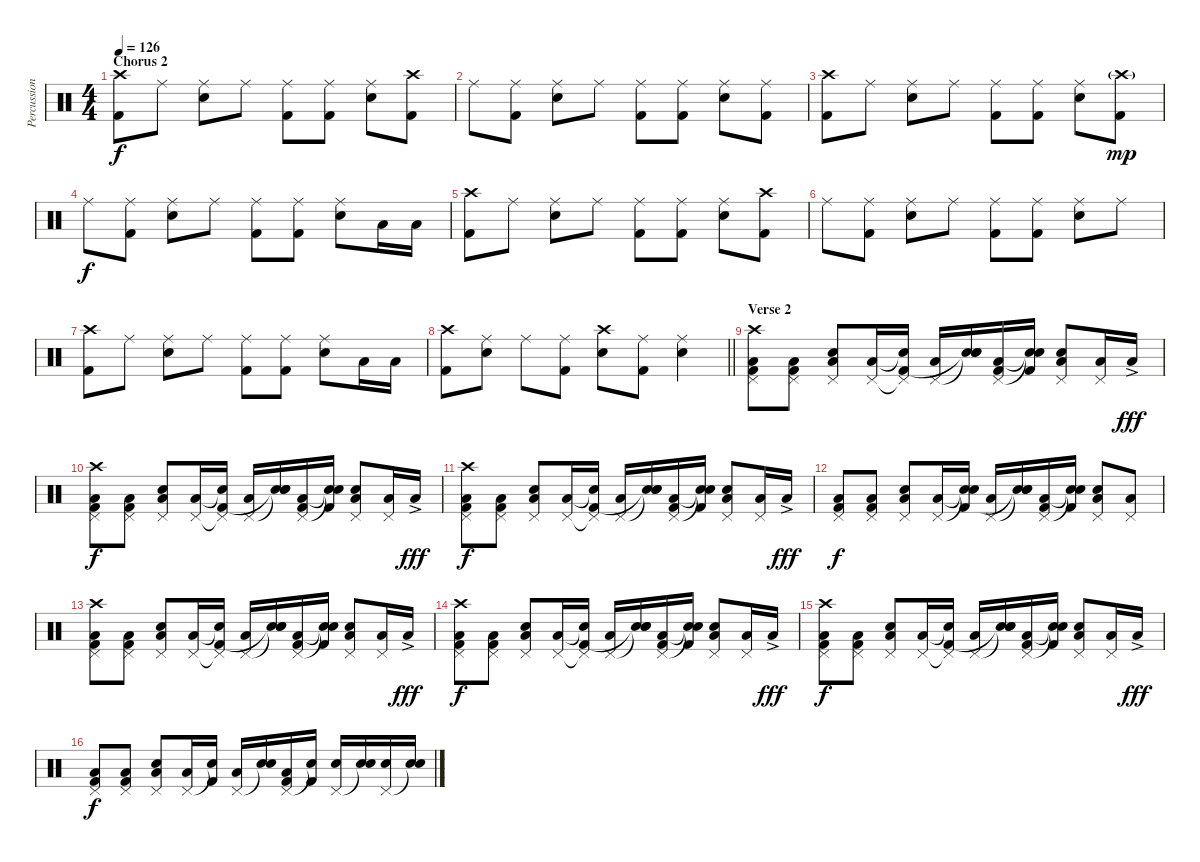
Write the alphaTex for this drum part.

\track ("Percussion" "Percussion") {instrument percussion}
\staff {score}
\articulation defaults
\ts (4 4)
\section ("" "Chorus 2")
\tempo 126
\clef neutral
\ks c
("Crash high (hit)" "Kick (hit) 2").8{dy f} "Ride (middle)".8 ("Ride (middle)" "Snare (hit) 2").8 "Ride (middle)".8 ("Ride (middle)" "Kick (hit) 2").8 ("Ride (middle)" "Kick (hit) 2").8 ("Ride (middle)" "Snare (hit) 2").8 ("Crash high (hit)" "Kick (hit) 2").8 |
"Ride (middle)".8 ("Ride (middle)" "Kick (hit) 2").8 ("Ride (middle)" "Snare (hit) 2").8 "Ride (middle)".8 ("Ride (middle)" "Kick (hit) 2").8 ("Ride (middle)" "Kick (hit) 2").8 ("Ride (middle)" "Snare (hit) 2").8 ("Ride (middle)" "Kick (hit) 2").8 |
("Crash high (hit)" "Kick (hit) 2").8 "Ride (middle)".8 ("Ride (middle)" "Snare (hit) 2").8 "Ride (middle)".8 ("Ride (middle)" "Kick (hit) 2").8 ("Ride (middle)" "Kick (hit) 2").8 ("Ride (middle)" "Snare (hit) 2").8 ("Crash high (hit)"{g} "Kick (hit) 2").8{dy mp} |
"Ride (middle)".8{dy f} ("Ride (middle)" "Kick (hit) 2").8 ("Ride (middle)" "Snare (hit) 2").8 "Ride (middle)".8 ("Ride (middle)" "Kick (hit) 2").8 ("Ride (middle)" "Kick (hit) 2").8 ("Ride (middle)" "Snare (hit) 2").8 "Low Floor Tom (hit)".16 "Low Floor Tom (hit)".16 |
("Crash high (hit)" "Kick (hit) 2").8 "Ride (middle)".8 ("Ride (middle)" "Snare (hit) 2").8 "Ride (middle)".8 ("Ride (middle)" "Kick (hit) 2").8 ("Ride (middle)" "Kick (hit) 2").8 ("Ride (middle)" "Snare (hit) 2").8 ("Crash high (hit)" "Kick (hit) 2").8 |
"Ride (middle)".8 ("Ride (middle)" "Kick (hit) 2").8 ("Ride (middle)" "Snare (hit) 2").8 "Ride (middle)".8 ("Ride (middle)" "Kick (hit) 2").8 ("Ride (middle)" "Kick (hit) 2").8 ("Ride (middle)" "Snare (hit) 2").8 "Ride (middle)".8 |
("Crash high (hit)" "Kick (hit) 2").8 "Ride (middle)".8 ("Ride (middle)" "Snare (hit) 2").8 "Ride (middle)".8 ("Ride (middle)" "Kick (hit) 2").8 ("Ride (middle)" "Kick (hit) 2").8 ("Ride (middle)" "Snare (hit) 2").8 "Low Floor Tom (hit)".16 "Low Floor Tom (hit)".16 |
\barLineRight lightlight
("Crash high (hit)" "Kick (hit) 2").8 ("Ride (middle)" "Snare (hit) 2").8 "Ride (middle)".8 ("Ride (middle)" "Kick (hit) 2").8 ("Crash high (hit)" "Snare (hit) 2").8 ("Ride (middle)" "Kick (hit) 2").8 ("Ride (middle)" "Snare (hit) 2").4 |
\section ("" "Verse 2")
("Pedal Hi-Hat (hit)" "Crash high (hit)" "Low Floor Tom (hit)" "Kick (hit) 2").8 ("Pedal Hi-Hat (hit)" "Low Floor Tom (hit)" "Kick (hit) 2").8 ("Pedal Hi-Hat (hit)" "Snare (hit) 2" "Low Floor Tom (hit)").8 ("Pedal Hi-Hat (hit)" "Low Floor Tom (hit)").16 ("Pedal Hi-Hat (hit)"{t} "Snare (hit)"{t} "Kick (hit) 2").16 ("Pedal Hi-Hat (hit)" "Low Floor Tom (hit)").16 ("Snare (hit)"{t} "Snare (hit) 2" "Snare (hit)"{t}).16 ("Pedal Hi-Hat (hit)" "Low Floor Tom (hit)" "Kick (hit) 2").16 ("Snare (hit)"{t} "Snare (hit)"{t} "Kick (hit) 2").16 ("Pedal Hi-Hat (hit)" "Snare (hit) 2" "Low Floor Tom (hit)").8 ("Pedal Hi-Hat (hit)" "Low Floor Tom (hit)").16 "Low Floor Tom (hit)"{ac}.16{dy fff} |
("Pedal Hi-Hat (hit)" "Crash high (hit)" "Low Floor Tom (hit)" "Kick (hit) 2").8{dy f} ("Pedal Hi-Hat (hit)" "Low Floor Tom (hit)" "Kick (hit) 2").8 ("Pedal Hi-Hat (hit)" "Snare (hit) 2" "Low Floor Tom (hit)").8 ("Pedal Hi-Hat (hit)" "Low Floor Tom (hit)").16 ("Pedal Hi-Hat (hit)"{t} "Snare (hit)"{t} "Kick (hit) 2").16 ("Pedal Hi-Hat (hit)" "Low Floor Tom (hit)").16 ("Snare (hit)"{t} "Snare (hit) 2" "Snare (hit)"{t}).16 ("Pedal Hi-Hat (hit)" "Low Floor Tom (hit)" "Kick (hit) 2").16 ("Snare (hit)"{t} "Snare (hit)"{t} "Kick (hit) 2").16 ("Pedal Hi-Hat (hit)" "Snare (hit) 2" "Low Floor Tom (hit)").8 ("Pedal Hi-Hat (hit)" "Low Floor Tom (hit)").16 "Low Floor Tom (hit)"{ac}.16{dy fff} |
("Pedal Hi-Hat (hit)" "Crash high (hit)" "Low Floor Tom (hit)" "Kick (hit) 2").8{dy f} ("Pedal Hi-Hat (hit)" "Low Floor Tom (hit)" "Kick (hit) 2").8 ("Pedal Hi-Hat (hit)" "Snare (hit) 2" "Low Floor Tom (hit)").8 ("Pedal Hi-Hat (hit)" "Low Floor Tom (hit)").16 ("Pedal Hi-Hat (hit)"{t} "Snare (hit)"{t} "Kick (hit) 2").16 ("Pedal Hi-Hat (hit)" "Low Floor Tom (hit)").16 ("Snare (hit)"{t} "Snare (hit) 2" "Snare (hit)"{t}).16 ("Pedal Hi-Hat (hit)" "Low Floor Tom (hit)" "Kick (hit) 2").16 ("Snare (hit)"{t} "Snare (hit)"{t} "Kick (hit) 2").16 ("Pedal Hi-Hat (hit)" "Snare (hit) 2" "Low Floor Tom (hit)").8 ("Pedal Hi-Hat (hit)" "Low Floor Tom (hit)").16 "Low Floor Tom (hit)"{ac}.16{dy fff} |
("Pedal Hi-Hat (hit)" "Low Floor Tom (hit)" "Kick (hit) 2").8{dy f} ("Pedal Hi-Hat (hit)" "Low Floor Tom (hit)" "Kick (hit) 2").8 ("Pedal Hi-Hat (hit)" "Snare (hit) 2" "Low Floor Tom (hit)").8 ("Pedal Hi-Hat (hit)" "Low Floor Tom (hit)").16 ("Snare (hit)"{t} "Snare (hit)"{t} "Kick (hit) 2").16 ("Pedal Hi-Hat (hit)" "Low Floor Tom (hit)").16 ("Snare (hit)"{t} "Snare (hit) 2" "Snare (hit)"{t}).16 ("Pedal Hi-Hat (hit)" "Low Floor Tom (hit)" "Kick (hit) 2").16 ("Snare (hit)"{t} "Snare (hit)"{t} "Kick (hit) 2").16 ("Pedal Hi-Hat (hit)" "Snare (hit) 2" "Low Floor Tom (hit)").8 ("Pedal Hi-Hat (hit)" "Low Floor Tom (hit)").8 |
("Pedal Hi-Hat (hit)" "Crash high (hit)" "Low Floor Tom (hit)" "Kick (hit) 2").8 ("Pedal Hi-Hat (hit)" "Low Floor Tom (hit)" "Kick (hit) 2").8 ("Pedal Hi-Hat (hit)" "Snare (hit) 2" "Low Floor Tom (hit)").8 ("Pedal Hi-Hat (hit)" "Low Floor Tom (hit)").16 ("Pedal Hi-Hat (hit)"{t} "Snare (hit)"{t} "Kick (hit) 2").16 ("Pedal Hi-Hat (hit)" "Low Floor Tom (hit)").16 ("Snare (hit)"{t} "Snare (hit) 2" "Snare (hit)"{t}).16 ("Pedal Hi-Hat (hit)" "Low Floor Tom (hit)" "Kick (hit) 2").16 ("Snare (hit)"{t} "Snare (hit)"{t} "Kick (hit) 2").16 ("Pedal Hi-Hat (hit)" "Snare (hit) 2" "Low Floor Tom (hit)").8 ("Pedal Hi-Hat (hit)" "Low Floor Tom (hit)").16 "Low Floor Tom (hit)"{ac}.16{dy fff} |
("Pedal Hi-Hat (hit)" "Crash high (hit)" "Low Floor Tom (hit)" "Kick (hit) 2").8{dy f} ("Pedal Hi-Hat (hit)" "Low Floor Tom (hit)" "Kick (hit) 2").8 ("Pedal Hi-Hat (hit)" "Snare (hit) 2" "Low Floor Tom (hit)").8 ("Pedal Hi-Hat (hit)" "Low Floor Tom (hit)").16 ("Pedal Hi-Hat (hit)"{t} "Snare (hit)"{t} "Kick (hit) 2").16 ("Pedal Hi-Hat (hit)" "Low Floor Tom (hit)").16 ("Snare (hit)"{t} "Snare (hit) 2" "Snare (hit)"{t}).16 ("Pedal Hi-Hat (hit)" "Low Floor Tom (hit)" "Kick (hit) 2").16 ("Snare (hit)"{t} "Snare (hit)"{t} "Kick (hit) 2").16 ("Pedal Hi-Hat (hit)" "Snare (hit) 2" "Low Floor Tom (hit)").8 ("Pedal Hi-Hat (hit)" "Low Floor Tom (hit)").16 "Low Floor Tom (hit)"{ac}.16{dy fff} |
("Pedal Hi-Hat (hit)" "Crash high (hit)" "Low Floor Tom (hit)" "Kick (hit) 2").8{dy f} ("Pedal Hi-Hat (hit)" "Low Floor Tom (hit)" "Kick (hit) 2").8 ("Pedal Hi-Hat (hit)" "Snare (hit) 2" "Low Floor Tom (hit)").8 ("Pedal Hi-Hat (hit)" "Low Floor Tom (hit)").16 ("Pedal Hi-Hat (hit)"{t} "Snare (hit)"{t} "Kick (hit) 2").16 ("Pedal Hi-Hat (hit)" "Low Floor Tom (hit)").16 ("Snare (hit)"{t} "Snare (hit) 2" "Snare (hit)"{t}).16 ("Pedal Hi-Hat (hit)" "Low Floor Tom (hit)" "Kick (hit) 2").16 ("Snare (hit)"{t} "Snare (hit)"{t} "Kick (hit) 2").16 ("Pedal Hi-Hat (hit)" "Snare (hit) 2" "Low Floor Tom (hit)").8 ("Pedal Hi-Hat (hit)" "Low Floor Tom (hit)").16 "Low Floor Tom (hit)"{ac}.16{dy fff} |
("Pedal Hi-Hat (hit)" "Low Floor Tom (hit)" "Kick (hit) 2").8{dy f} ("Pedal Hi-Hat (hit)" "Low Floor Tom (hit)" "Kick (hit) 2").8 ("Pedal Hi-Hat (hit)" "Snare (hit) 2" "Low Floor Tom (hit)").8 ("Pedal Hi-Hat (hit)" "Low Floor Tom (hit)").16 ("Snare (hit)"{t} "Kick (hit) 2").16 ("Pedal Hi-Hat (hit)" "Low Floor Tom (hit)").16 ("Snare (hit)"{t} "Snare (hit) 2").16 ("Pedal Hi-Hat (hit)" "Low Floor Tom (hit)" "Kick (hit) 2").16 ("Snare (hit)"{t} "Kick (hit) 2").16 ("Pedal Hi-Hat (hit)" "Snare (hit) 2").16 ("Snare (hit)"{t} "Snare (hit) 2").16 ("Pedal Hi-Hat (hit)" "Snare (hit) 2").16 ("Snare (hit)"{t} "Snare (hit) 2").16
